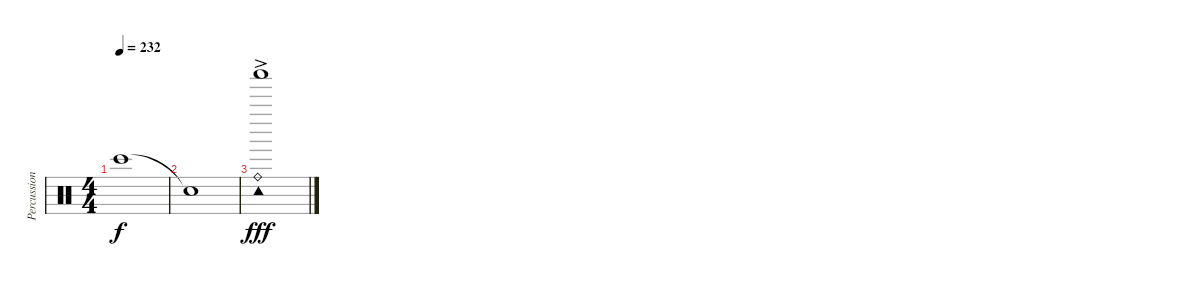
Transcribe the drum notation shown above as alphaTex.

\track ("Percussion" "Percussion") {instrument percussion}
\staff {score}
\articulation defaults
\ts (4 4)
\tempo 232
\clef neutral
\ks c "Bongo High (hit)".1{dy f}
|
"Snare (hit)"{t}.1 |
("Ride (bell)"{ac} "Tambourine (hit)"{ac} "Shaker (hit)"{ac}).1{dy fff}
